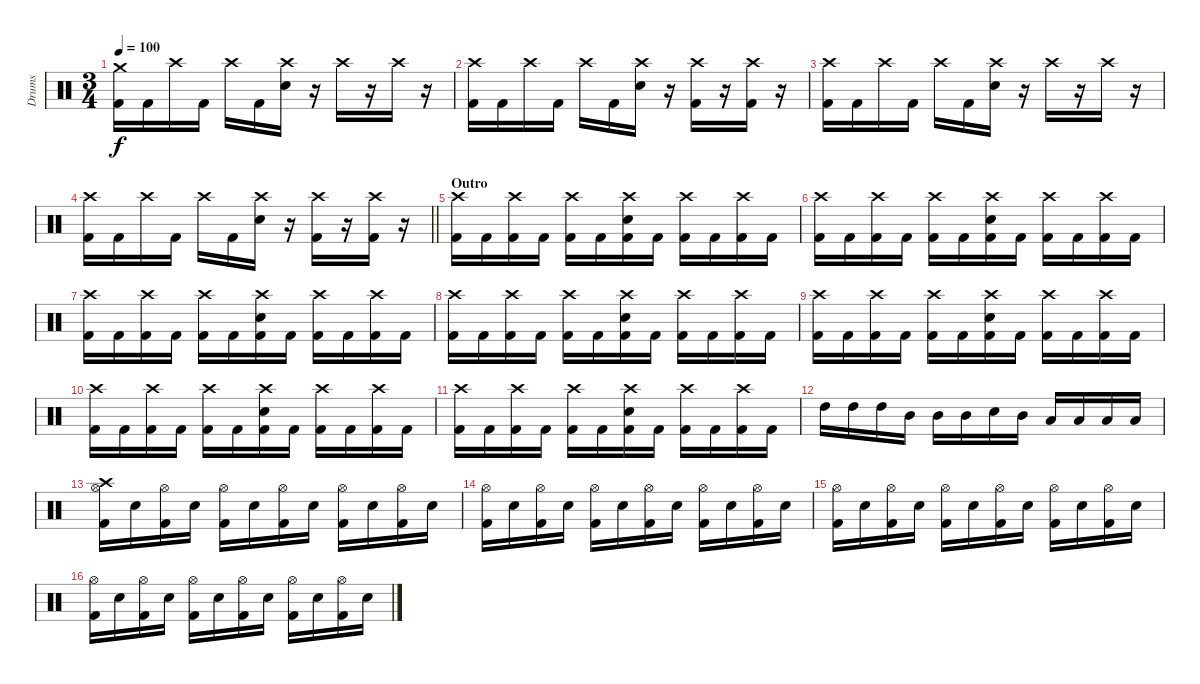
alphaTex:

\track ("Drums" "Drums") {instrument percussion}
\staff {score}
\articulation defaults
\ts (3 4)
\tempo 100
\clef neutral
\ks c
("Crash medium (hit)" "Kick (hit) 2").16{dy f} "Kick (hit) 2".16 "Crash high (hit)".16 "Kick (hit) 2".16 "Crash high (hit)".16 "Kick (hit) 2".16 ("Crash high (hit)" "Electric Snare (hit)").16 r.16 "Crash high (hit)".16 r.16 "Crash high (hit)".16 r.16 |
("Crash high (hit)" "Kick (hit) 2").16 "Kick (hit) 2".16 "Crash high (hit)".16 "Kick (hit) 2".16 "Crash high (hit)".16 "Kick (hit) 2".16 ("Crash high (hit)" "Electric Snare (hit)").16 r.16 ("Crash high (hit)" "Kick (hit) 2").16 r.16 ("Crash high (hit)" "Kick (hit) 2").16 r.16 |
("Crash high (hit)" "Kick (hit) 2").16 "Kick (hit) 2".16 "Crash high (hit)".16 "Kick (hit) 2".16 "Crash high (hit)".16 "Kick (hit) 2".16 ("Crash high (hit)" "Electric Snare (hit)").16 r.16 "Crash high (hit)".16 r.16 "Crash high (hit)".16 r.16 |
\barLineRight lightlight
("Crash high (hit)" "Kick (hit) 2").16 "Kick (hit) 2".16 "Crash high (hit)".16 "Kick (hit) 2".16 "Crash high (hit)".16 "Kick (hit) 2".16 ("Crash high (hit)" "Electric Snare (hit)").16 r.16 ("Crash high (hit)" "Kick (hit) 2").16 r.16 ("Crash high (hit)" "Kick (hit) 2").16 r.16 |
\section ("" "Outro")
("Crash high (hit)" "Kick (hit) 2").16 "Kick (hit) 2".16 ("Crash high (hit)" "Kick (hit) 2").16 "Kick (hit) 2".16 ("Crash high (hit)" "Kick (hit) 2").16 "Kick (hit) 2".16 ("Crash high (hit)" "Electric Snare (hit)" "Kick (hit) 2").16 "Kick (hit) 2".16 ("Crash high (hit)" "Kick (hit) 2").16 "Kick (hit) 2".16 ("Crash high (hit)" "Kick (hit) 2").16 "Kick (hit) 2".16 |
("Crash high (hit)" "Kick (hit) 2").16 "Kick (hit) 2".16 ("Crash high (hit)" "Kick (hit) 2").16 "Kick (hit) 2".16 ("Crash high (hit)" "Kick (hit) 2").16 "Kick (hit) 2".16 ("Crash high (hit)" "Electric Snare (hit)" "Kick (hit) 2").16 "Kick (hit) 2".16 ("Crash high (hit)" "Kick (hit) 2").16 "Kick (hit) 2".16 ("Crash high (hit)" "Kick (hit) 2").16 "Kick (hit) 2".16 |
("Crash high (hit)" "Kick (hit) 2").16 "Kick (hit) 2".16 ("Crash high (hit)" "Kick (hit) 2").16 "Kick (hit) 2".16 ("Crash high (hit)" "Kick (hit) 2").16 "Kick (hit) 2".16 ("Crash high (hit)" "Electric Snare (hit)" "Kick (hit) 2").16 "Kick (hit) 2".16 ("Crash high (hit)" "Kick (hit) 2").16 "Kick (hit) 2".16 ("Crash high (hit)" "Kick (hit) 2").16 "Kick (hit) 2".16 |
("Crash high (hit)" "Kick (hit) 2").16 "Kick (hit) 2".16 ("Crash high (hit)" "Kick (hit) 2").16 "Kick (hit) 2".16 ("Crash high (hit)" "Kick (hit) 2").16 "Kick (hit) 2".16 ("Crash high (hit)" "Electric Snare (hit)" "Kick (hit) 2").16 "Kick (hit) 2".16 ("Crash high (hit)" "Kick (hit) 2").16 "Kick (hit) 2".16 ("Crash high (hit)" "Kick (hit) 2").16 "Kick (hit) 2".16 |
("Crash high (hit)" "Kick (hit) 2").16 "Kick (hit) 2".16 ("Crash high (hit)" "Kick (hit) 2").16 "Kick (hit) 2".16 ("Crash high (hit)" "Kick (hit) 2").16 "Kick (hit) 2".16 ("Crash high (hit)" "Electric Snare (hit)" "Kick (hit) 2").16 "Kick (hit) 2".16 ("Crash high (hit)" "Kick (hit) 2").16 "Kick (hit) 2".16 ("Crash high (hit)" "Kick (hit) 2").16 "Kick (hit) 2".16 |
("Crash high (hit)" "Kick (hit) 2").16 "Kick (hit) 2".16 ("Crash high (hit)" "Kick (hit) 2").16 "Kick (hit) 2".16 ("Crash high (hit)" "Kick (hit) 2").16 "Kick (hit) 2".16 ("Crash high (hit)" "Electric Snare (hit)" "Kick (hit) 2").16 "Kick (hit) 2".16 ("Crash high (hit)" "Kick (hit) 2").16 "Kick (hit) 2".16 ("Crash high (hit)" "Kick (hit) 2").16 "Kick (hit) 2".16 |
("Crash high (hit)" "Kick (hit) 2").16 "Kick (hit) 2".16 ("Crash high (hit)" "Kick (hit) 2").16 "Kick (hit) 2".16 ("Crash high (hit)" "Kick (hit) 2").16 "Kick (hit) 2".16 ("Crash high (hit)" "Electric Snare (hit)" "Kick (hit) 2").16 "Kick (hit) 2".16 ("Crash high (hit)" "Kick (hit) 2").16 "Kick (hit) 2".16 ("Crash high (hit)" "Kick (hit) 2").16 "Kick (hit) 2".16 |
"High Tom (hit)".16 "High Tom (hit)".16 "High Tom (hit)".16 "Mid Tom (hit)".16 "Mid Tom (hit)".16 "Mid Tom (hit)".16 "Electric Snare (hit)".16 "Mid Tom (hit)".16 "Low Tom (hit)".16 "Low Tom (hit)".16 "Low Tom (hit)".16 "Low Tom (hit)".16 |
("Crash high (hit)" "Hi-Hat (open)" "Kick (hit) 2").16 "Electric Snare (hit)".16 ("Hi-Hat (open)" "Kick (hit) 2").16 "Electric Snare (hit)".16 ("Hi-Hat (open)" "Kick (hit) 2").16 "Electric Snare (hit)".16 ("Hi-Hat (open)" "Kick (hit) 2").16 "Electric Snare (hit)".16 ("Hi-Hat (open)" "Kick (hit) 2").16 "Electric Snare (hit)".16 ("Hi-Hat (open)" "Kick (hit) 2").16 "Electric Snare (hit)".16 |
("Hi-Hat (open)" "Kick (hit) 2").16 "Electric Snare (hit)".16 ("Hi-Hat (open)" "Kick (hit) 2").16 "Electric Snare (hit)".16 ("Hi-Hat (open)" "Kick (hit) 2").16 "Electric Snare (hit)".16 ("Hi-Hat (open)" "Kick (hit) 2").16 "Electric Snare (hit)".16 ("Hi-Hat (open)" "Kick (hit) 2").16 "Electric Snare (hit)".16 ("Hi-Hat (open)" "Kick (hit) 2").16 "Electric Snare (hit)".16 |
("Hi-Hat (open)" "Kick (hit) 2").16 "Electric Snare (hit)".16 ("Hi-Hat (open)" "Kick (hit) 2").16 "Electric Snare (hit)".16 ("Hi-Hat (open)" "Kick (hit) 2").16 "Electric Snare (hit)".16 ("Hi-Hat (open)" "Kick (hit) 2").16 "Electric Snare (hit)".16 ("Hi-Hat (open)" "Kick (hit) 2").16 "Electric Snare (hit)".16 ("Hi-Hat (open)" "Kick (hit) 2").16 "Electric Snare (hit)".16 |
("Hi-Hat (open)" "Kick (hit) 2").16 "Electric Snare (hit)".16 ("Hi-Hat (open)" "Kick (hit) 2").16 "Electric Snare (hit)".16 ("Hi-Hat (open)" "Kick (hit) 2").16 "Electric Snare (hit)".16 ("Hi-Hat (open)" "Kick (hit) 2").16 "Electric Snare (hit)".16 ("Hi-Hat (open)" "Kick (hit) 2").16 "Electric Snare (hit)".16 ("Hi-Hat (open)" "Kick (hit) 2").16 "Electric Snare (hit)".16
